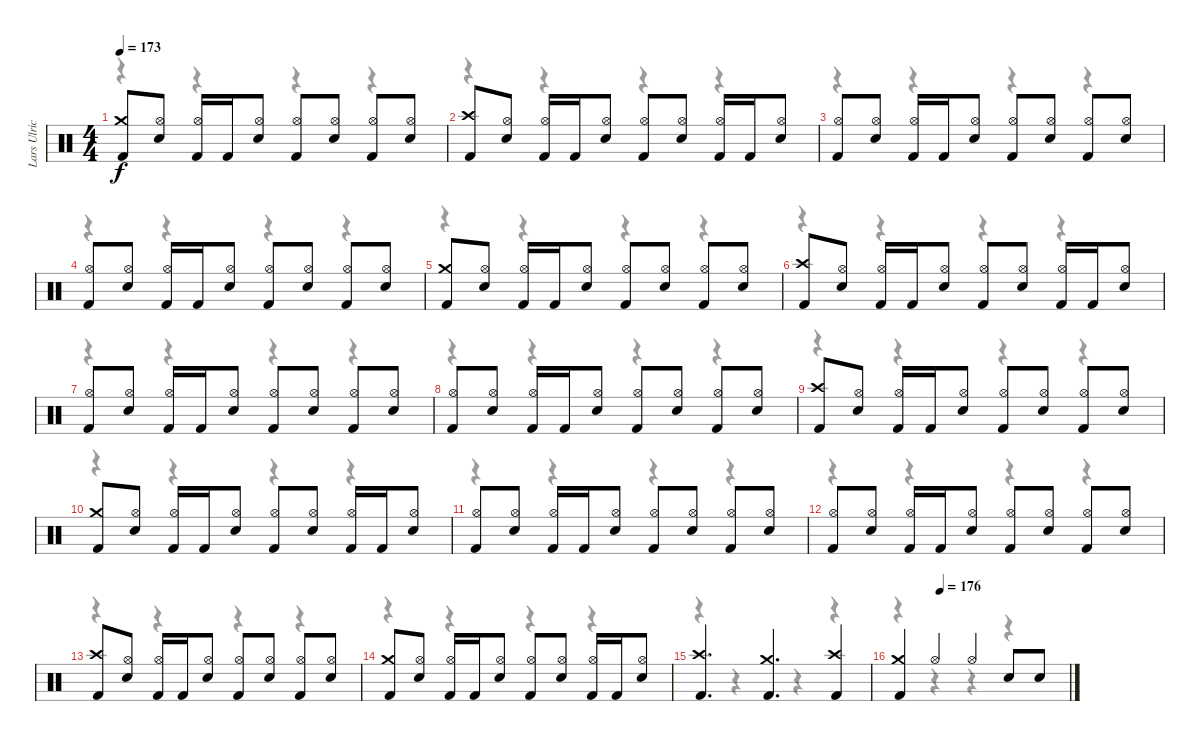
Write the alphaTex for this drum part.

\track ("Lars Ulrich" "Lars Ulric") {instrument percussion}
\staff {score}
\articulation defaults
\voice
\ts (4 4)
\tempo 173
\clef neutral
\ks c
("Crash medium (hit)" "Kick (hit) 2").8{dy f} ("Hi-Hat (open)" "Snare (hit) 2").8 ("Hi-Hat (open)" "Kick (hit) 2").16 "Kick (hit) 2".16 ("Hi-Hat (open)" "Snare (hit) 2").8 ("Hi-Hat (open)" "Kick (hit) 2").8 ("Hi-Hat (open)" "Snare (hit) 2").8 ("Hi-Hat (open)" "Kick (hit) 2").8 ("Hi-Hat (open)" "Snare (hit) 2").8 |
("Crash high (hit)" "Kick (hit) 2").8 ("Hi-Hat (open)" "Snare (hit) 2").8 ("Hi-Hat (open)" "Kick (hit) 2").16 "Kick (hit) 2".16 ("Hi-Hat (open)" "Snare (hit) 2").8 ("Hi-Hat (open)" "Kick (hit) 2").8 ("Hi-Hat (open)" "Snare (hit) 2").8 ("Hi-Hat (open)" "Kick (hit) 2").16 "Kick (hit) 2".16 ("Hi-Hat (open)" "Snare (hit) 2").8 |
("Hi-Hat (open)" "Kick (hit) 2").8 ("Hi-Hat (open)" "Snare (hit) 2").8 ("Hi-Hat (open)" "Kick (hit) 2").16 "Kick (hit) 2".16 ("Hi-Hat (open)" "Snare (hit) 2").8 ("Hi-Hat (open)" "Kick (hit) 2").8 ("Hi-Hat (open)" "Snare (hit) 2").8 ("Hi-Hat (open)" "Kick (hit) 2").8 ("Hi-Hat (open)" "Snare (hit) 2").8 |
("Hi-Hat (open)" "Kick (hit) 2").8 ("Hi-Hat (open)" "Snare (hit) 2").8 ("Hi-Hat (open)" "Kick (hit) 2").16 "Kick (hit) 2".16 ("Hi-Hat (open)" "Snare (hit) 2").8 ("Hi-Hat (open)" "Kick (hit) 2").8 ("Hi-Hat (open)" "Snare (hit) 2").8 ("Hi-Hat (open)" "Kick (hit) 2").8 ("Hi-Hat (open)" "Snare (hit) 2").8 |
("Crash medium (hit)" "Kick (hit) 2").8 ("Hi-Hat (open)" "Snare (hit) 2").8 ("Hi-Hat (open)" "Kick (hit) 2").16 "Kick (hit) 2".16 ("Hi-Hat (open)" "Snare (hit) 2").8 ("Hi-Hat (open)" "Kick (hit) 2").8 ("Hi-Hat (open)" "Snare (hit) 2").8 ("Hi-Hat (open)" "Kick (hit) 2").8 ("Hi-Hat (open)" "Snare (hit) 2").8 |
("Crash high (hit)" "Kick (hit) 2").8 ("Hi-Hat (open)" "Snare (hit) 2").8 ("Hi-Hat (open)" "Kick (hit) 2").16 "Kick (hit) 2".16 ("Hi-Hat (open)" "Snare (hit) 2").8 ("Hi-Hat (open)" "Kick (hit) 2").8 ("Hi-Hat (open)" "Snare (hit) 2").8 ("Hi-Hat (open)" "Kick (hit) 2").16 "Kick (hit) 2".16 ("Hi-Hat (open)" "Snare (hit) 2").8 |
("Hi-Hat (open)" "Kick (hit) 2").8 ("Hi-Hat (open)" "Snare (hit) 2").8 ("Hi-Hat (open)" "Kick (hit) 2").16 "Kick (hit) 2".16 ("Hi-Hat (open)" "Snare (hit) 2").8 ("Hi-Hat (open)" "Kick (hit) 2").8 ("Hi-Hat (open)" "Snare (hit) 2").8 ("Hi-Hat (open)" "Kick (hit) 2").8 ("Hi-Hat (open)" "Snare (hit) 2").8 |
("Hi-Hat (open)" "Kick (hit) 2").8 ("Hi-Hat (open)" "Snare (hit) 2").8 ("Hi-Hat (open)" "Kick (hit) 2").16 "Kick (hit) 2".16 ("Hi-Hat (open)" "Snare (hit) 2").8 ("Hi-Hat (open)" "Kick (hit) 2").8 ("Hi-Hat (open)" "Snare (hit) 2").8 ("Hi-Hat (open)" "Kick (hit) 2").8 ("Hi-Hat (open)" "Snare (hit) 2").8 |
("Crash high (hit)" "Kick (hit) 2").8 ("Hi-Hat (open)" "Snare (hit) 2").8 ("Hi-Hat (open)" "Kick (hit) 2").16 "Kick (hit) 2".16 ("Hi-Hat (open)" "Snare (hit) 2").8 ("Hi-Hat (open)" "Kick (hit) 2").8 ("Hi-Hat (open)" "Snare (hit) 2").8 ("Hi-Hat (open)" "Kick (hit) 2").8 ("Hi-Hat (open)" "Snare (hit) 2").8 |
("Crash medium (hit)" "Kick (hit) 2").8 ("Hi-Hat (open)" "Snare (hit) 2").8 ("Hi-Hat (open)" "Kick (hit) 2").16 "Kick (hit) 2".16 ("Hi-Hat (open)" "Snare (hit) 2").8 ("Hi-Hat (open)" "Kick (hit) 2").8 ("Hi-Hat (open)" "Snare (hit) 2").8 ("Hi-Hat (open)" "Kick (hit) 2").16 "Kick (hit) 2".16 ("Hi-Hat (open)" "Snare (hit) 2").8 |
("Hi-Hat (open)" "Kick (hit) 2").8 ("Hi-Hat (open)" "Snare (hit) 2").8 ("Hi-Hat (open)" "Kick (hit) 2").16 "Kick (hit) 2".16 ("Hi-Hat (open)" "Snare (hit) 2").8 ("Hi-Hat (open)" "Kick (hit) 2").8 ("Hi-Hat (open)" "Snare (hit) 2").8 ("Hi-Hat (open)" "Kick (hit) 2").8 ("Hi-Hat (open)" "Snare (hit) 2").8 |
("Hi-Hat (open)" "Kick (hit) 2").8 ("Hi-Hat (open)" "Snare (hit) 2").8 ("Hi-Hat (open)" "Kick (hit) 2").16 "Kick (hit) 2".16 ("Hi-Hat (open)" "Snare (hit) 2").8 ("Hi-Hat (open)" "Kick (hit) 2").8 ("Hi-Hat (open)" "Snare (hit) 2").8 ("Hi-Hat (open)" "Kick (hit) 2").8 ("Hi-Hat (open)" "Snare (hit) 2").8 |
("Crash high (hit)" "Kick (hit) 2").8 ("Hi-Hat (open)" "Snare (hit) 2").8 ("Hi-Hat (open)" "Kick (hit) 2").16 "Kick (hit) 2".16 ("Hi-Hat (open)" "Snare (hit) 2").8 ("Hi-Hat (open)" "Kick (hit) 2").8 ("Hi-Hat (open)" "Snare (hit) 2").8 ("Hi-Hat (open)" "Kick (hit) 2").8 ("Hi-Hat (open)" "Snare (hit) 2").8 |
("Crash medium (hit)" "Kick (hit) 2").8 ("Hi-Hat (open)" "Snare (hit) 2").8 ("Hi-Hat (open)" "Kick (hit) 2").16 "Kick (hit) 2".16 ("Hi-Hat (open)" "Snare (hit) 2").8 ("Hi-Hat (open)" "Kick (hit) 2").8 ("Hi-Hat (open)" "Snare (hit) 2").8 ("Hi-Hat (open)" "Kick (hit) 2").16 "Kick (hit) 2".16 ("Hi-Hat (open)" "Snare (hit) 2").8 |
("Crash high (hit)" "Kick (hit) 2").4{d} ("Crash medium (hit)" "Kick (hit) 2").4{d} ("Crash high (hit)" "Kick (hit) 2").4 |
\tempo (176 0.25)
("Crash medium (hit)" "Kick (hit) 2").4 "Hi-Hat (open)".4 "Hi-Hat (open)".4 "Snare (hit) 2".8 "Snare (hit) 2".8
\voice
\clef neutral
\ottava regular
\simile none
\ks c
r.4{dy f} r.4 r.4 r.4 |
r.4 r.4 r.4 r.4 |
r.4 r.4 r.4 r.4 |
r.4 r.4 r.4 r.4 |
r.4 r.4 r.4 r.4 |
r.4 r.4 r.4 r.4 |
r.4 r.4 r.4 r.4 |
r.4 r.4 r.4 r.4 |
r.4 r.4 r.4 r.4 |
r.4 r.4 r.4 r.4 |
r.4 r.4 r.4 r.4 |
r.4 r.4 r.4 r.4 |
r.4 r.4 r.4 r.4 |
r.4 r.4 r.4 r.4 |
r.4 r.4 r.4 r.4 |
r.4 r.4 r.4 r.4
